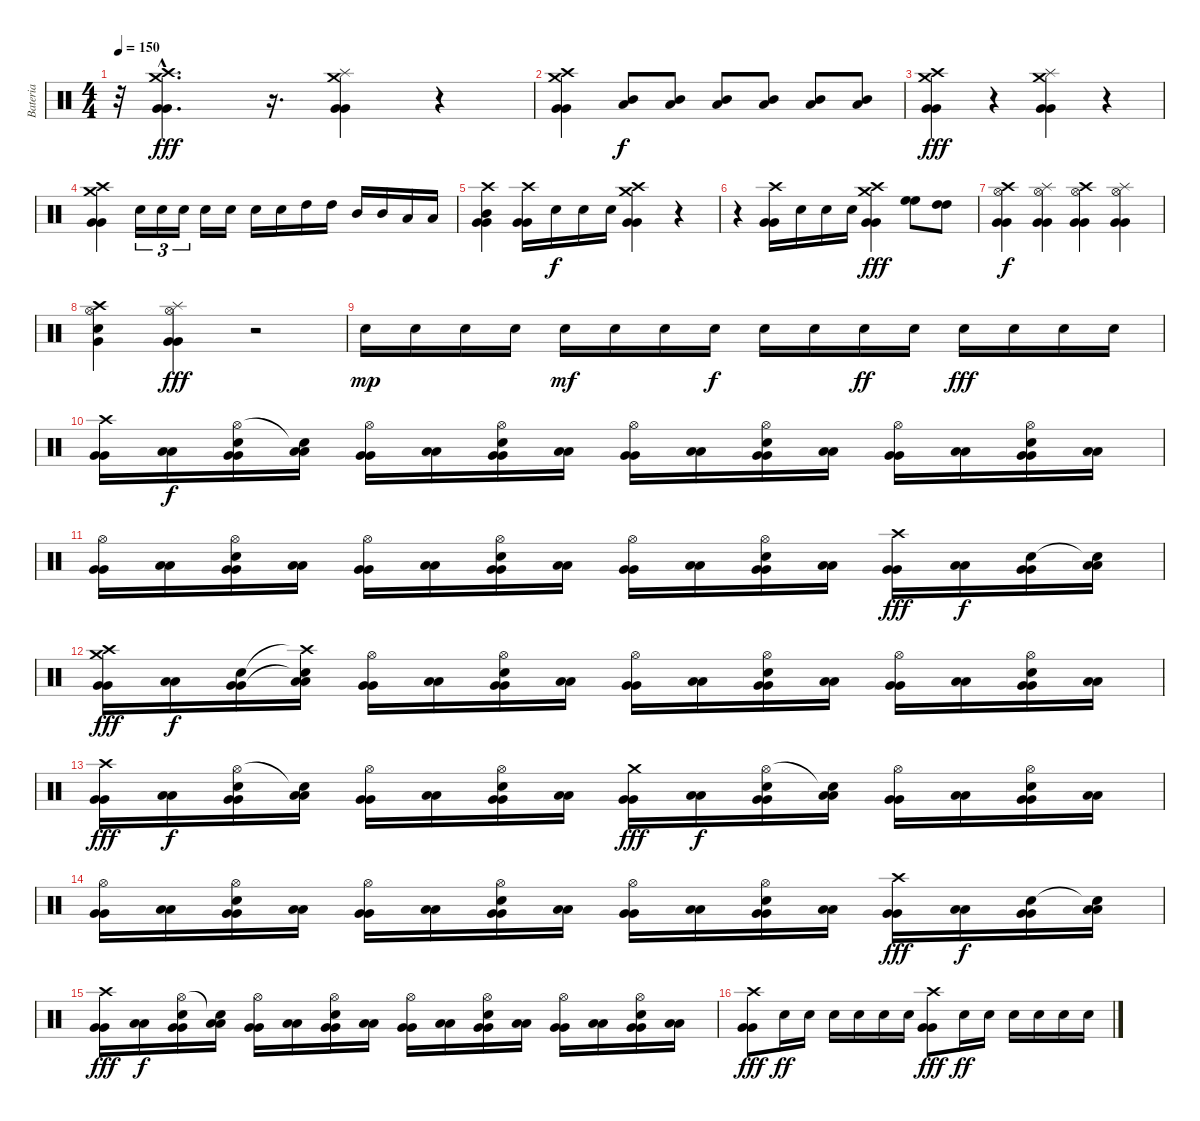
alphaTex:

\track ("Bateria" "Bateria") {instrument percussion}
\staff {score}
\articulation defaults
\ts (4 4)
\tempo 150
\clef neutral
\ks c
r.32{dy fff} ("Crash medium (hit)"{hac} "Crash high (hit)"{hac} "Very Low Tom (hit)"{hac} "Very Low Tom (hit)"{hac}).4{d} r.16{d} ("Crash medium (hit)" "Splash (hit)" "Very Low Tom (hit)" "Very Low Tom (hit)").4 r.4 |
("Crash medium (hit)" "Crash high (hit)" "Very Low Tom (hit)" "Very Low Tom (hit)").4 ("Low Tom (hit)" "Mid Tom (hit)").8{dy f} ("Low Tom (hit)" "Mid Tom (hit)").8 ("Low Tom (hit)" "Mid Tom (hit)").8 ("Low Tom (hit)" "Mid Tom (hit)").8 ("Low Tom (hit)" "Mid Tom (hit)").8 ("Low Tom (hit)" "Mid Tom (hit)").8 |
("Crash medium (hit)" "Crash high (hit)" "Very Low Tom (hit)" "Very Low Tom (hit)").4{dy fff} r.4 ("Crash medium (hit)" "Splash (hit)" "Very Low Tom (hit)" "Very Low Tom (hit)").4 r.4 |
("Crash medium (hit)" "Crash high (hit)" "Very Low Tom (hit)" "Very Low Tom (hit)").4 "Electric Snare (hit)".16{tu (3 2)} "Electric Snare (hit)".16{tu (3 2)} "Electric Snare (hit)".16{tu (3 2)} "Electric Snare (hit)".16 "Electric Snare (hit)".16 "Electric Snare (hit)".16 "Electric Snare (hit)".16 "High Tom (hit)".16 "High Tom (hit)".16 "Mid Tom (hit)".16 "Mid Tom (hit)".16 "Low Tom (hit)".16 "Low Tom (hit)".16 |
("Crash high (hit)" "Mid Tom (hit)" "Very Low Tom (hit)" "Very Low Tom (hit)").4 ("Crash high (hit)" "Very Low Tom (hit)" "Very Low Tom (hit)").16 "Electric Snare (hit)".16{dy f} "Electric Snare (hit)".16 "Electric Snare (hit)".16 ("Crash high (hit)" "Crash medium (hit)" "Very Low Tom (hit)" "Very Low Tom (hit)").4 r.4 |
r.4 ("Crash high (hit)" "Very Low Tom (hit)" "Very Low Tom (hit)").16 "Electric Snare (hit)".16 "Electric Snare (hit)".16 "Electric Snare (hit)".16 ("Crash high (hit)" "Crash medium (hit)" "Very Low Tom (hit)" "Very Low Tom (hit)").4{dy fff} ("High Floor Tom (hit)" "High Floor Tom (hit)").8{bd 60} ("High Tom (hit)" "High Tom (hit)").8{bd 480} |
("Crash high (hit)" "Hi-Hat (open)" "Very Low Tom (hit)" "Very Low Tom (hit)").4{dy f} ("Splash (hit)" "Hi-Hat (open)" "Very Low Tom (hit)" "Very Low Tom (hit)").4 ("Crash high (hit)" "Hi-Hat (open)" "Very Low Tom (hit)" "Very Low Tom (hit)").4 ("Splash (hit)" "Hi-Hat (open)" "Very Low Tom (hit)" "Very Low Tom (hit)").4 |
("Crash high (hit)" "Hi-Hat (open)" "Metronome (bell)" "Very Low Tom (hit)").4 ("Splash (hit)" "Hi-Hat (open)" "Very Low Tom (hit)" "Very Low Tom (hit)").4{dy fff} r.2 |
"Electric Snare (hit)".16{dy mp} "Electric Snare (hit)".16 "Electric Snare (hit)".16 "Electric Snare (hit)".16 "Electric Snare (hit)".16{dy mf} "Electric Snare (hit)".16 "Electric Snare (hit)".16 "Electric Snare (hit)".16{dy f} "Electric Snare (hit)".16 "Electric Snare (hit)".16 "Electric Snare (hit)".16{dy ff} "Electric Snare (hit)".16 "Electric Snare (hit)".16{dy fff} "Electric Snare (hit)".16 "Electric Snare (hit)".16 "Electric Snare (hit)".16 |
("Crash high (hit)" "Very Low Tom (hit)" "Very Low Tom (hit)").16 ("Low Floor Tom (hit)" "Low Floor Tom (hit)").16{dy f} ("Hi-Hat (open)" "Electric Snare (hit)" "Very Low Tom (hit)" "Very Low Tom (hit)").16 ("Snare (hit)"{t} "Low Floor Tom (hit)" "Low Floor Tom (hit)").16 ("Hi-Hat (open)" "Very Low Tom (hit)" "Very Low Tom (hit)").16 ("Low Floor Tom (hit)" "Low Floor Tom (hit)").16 ("Hi-Hat (open)" "Electric Snare (hit)" "Very Low Tom (hit)" "Very Low Tom (hit)").16 ("Low Floor Tom (hit)" "Low Floor Tom (hit)").16 ("Hi-Hat (open)" "Very Low Tom (hit)" "Very Low Tom (hit)").16 ("Low Floor Tom (hit)" "Low Floor Tom (hit)").16 ("Hi-Hat (open)" "Electric Snare (hit)" "Very Low Tom (hit)" "Very Low Tom (hit)").16 ("Low Floor Tom (hit)" "Low Floor Tom (hit)").16 ("Hi-Hat (open)" "Very Low Tom (hit)" "Very Low Tom (hit)").16 ("Low Floor Tom (hit)" "Low Floor Tom (hit)").16 ("Hi-Hat (open)" "Electric Snare (hit)" "Very Low Tom (hit)" "Very Low Tom (hit)").16 ("Low Floor Tom (hit)" "Low Floor Tom (hit)").16 |
("Hi-Hat (open)" "Very Low Tom (hit)" "Very Low Tom (hit)").16 ("Low Floor Tom (hit)" "Low Floor Tom (hit)").16 ("Hi-Hat (open)" "Electric Snare (hit)" "Very Low Tom (hit)" "Very Low Tom (hit)").16 ("Low Floor Tom (hit)" "Low Floor Tom (hit)").16 ("Hi-Hat (open)" "Very Low Tom (hit)" "Very Low Tom (hit)").16 ("Low Floor Tom (hit)" "Low Floor Tom (hit)").16 ("Hi-Hat (open)" "Electric Snare (hit)" "Very Low Tom (hit)" "Very Low Tom (hit)").16 ("Low Floor Tom (hit)" "Low Floor Tom (hit)").16 ("Hi-Hat (open)" "Very Low Tom (hit)" "Very Low Tom (hit)").16 ("Low Floor Tom (hit)" "Low Floor Tom (hit)").16 ("Hi-Hat (open)" "Electric Snare (hit)" "Very Low Tom (hit)" "Very Low Tom (hit)").16 ("Low Floor Tom (hit)" "Low Floor Tom (hit)").16 ("Crash high (hit)" "Very Low Tom (hit)" "Very Low Tom (hit)").16{dy fff} ("Low Floor Tom (hit)" "Low Floor Tom (hit)").16{dy f} ("Electric Snare (hit)" "Very Low Tom (hit)" "Very Low Tom (hit)").16 ("Snare (hit)"{t} "Low Floor Tom (hit)" "Low Floor Tom (hit)").16 |
("Crash high (hit)" "Crash medium (hit)" "Very Low Tom (hit)" "Very Low Tom (hit)").16{dy fff} ("Low Floor Tom (hit)" "Low Floor Tom (hit)").16{dy f} ("Electric Snare (hit)" "Very Low Tom (hit)" "Very Low Tom (hit)").16 ("Crash high (hit)"{t} "Snare (hit)"{t} "Low Floor Tom (hit)" "Low Floor Tom (hit)").16 ("Hi-Hat (open)" "Very Low Tom (hit)" "Very Low Tom (hit)").16 ("Low Floor Tom (hit)" "Low Floor Tom (hit)").16 ("Hi-Hat (open)" "Electric Snare (hit)" "Very Low Tom (hit)" "Very Low Tom (hit)").16 ("Low Floor Tom (hit)" "Low Floor Tom (hit)").16 ("Hi-Hat (open)" "Very Low Tom (hit)" "Very Low Tom (hit)").16 ("Low Floor Tom (hit)" "Low Floor Tom (hit)").16 ("Hi-Hat (open)" "Electric Snare (hit)" "Very Low Tom (hit)" "Very Low Tom (hit)").16 ("Low Floor Tom (hit)" "Low Floor Tom (hit)").16 ("Hi-Hat (open)" "Very Low Tom (hit)" "Very Low Tom (hit)").16 ("Low Floor Tom (hit)" "Low Floor Tom (hit)").16 ("Hi-Hat (open)" "Electric Snare (hit)" "Very Low Tom (hit)" "Very Low Tom (hit)").16 ("Low Floor Tom (hit)" "Low Floor Tom (hit)").16 |
("Crash high (hit)" "Very Low Tom (hit)" "Very Low Tom (hit)").16{dy fff} ("Low Floor Tom (hit)" "Low Floor Tom (hit)").16{dy f} ("Hi-Hat (open)" "Electric Snare (hit)" "Very Low Tom (hit)" "Very Low Tom (hit)").16 ("Snare (hit)"{t} "Low Floor Tom (hit)" "Low Floor Tom (hit)").16 ("Hi-Hat (open)" "Very Low Tom (hit)" "Very Low Tom (hit)").16 ("Low Floor Tom (hit)" "Low Floor Tom (hit)").16 ("Hi-Hat (open)" "Electric Snare (hit)" "Very Low Tom (hit)" "Very Low Tom (hit)").16 ("Low Floor Tom (hit)" "Low Floor Tom (hit)").16 ("Crash medium (hit)" "Very Low Tom (hit)" "Very Low Tom (hit)").16{dy fff} ("Low Floor Tom (hit)" "Low Floor Tom (hit)").16{dy f} ("Hi-Hat (open)" "Electric Snare (hit)" "Very Low Tom (hit)" "Very Low Tom (hit)").16 ("Snare (hit)"{t} "Low Floor Tom (hit)" "Low Floor Tom (hit)").16 ("Hi-Hat (open)" "Very Low Tom (hit)" "Very Low Tom (hit)").16 ("Low Floor Tom (hit)" "Low Floor Tom (hit)").16 ("Hi-Hat (open)" "Electric Snare (hit)" "Very Low Tom (hit)" "Very Low Tom (hit)").16 ("Low Floor Tom (hit)" "Low Floor Tom (hit)").16 |
("Hi-Hat (open)" "Very Low Tom (hit)" "Very Low Tom (hit)").16 ("Low Floor Tom (hit)" "Low Floor Tom (hit)").16 ("Hi-Hat (open)" "Electric Snare (hit)" "Very Low Tom (hit)" "Very Low Tom (hit)").16 ("Low Floor Tom (hit)" "Low Floor Tom (hit)").16 ("Hi-Hat (open)" "Very Low Tom (hit)" "Very Low Tom (hit)").16 ("Low Floor Tom (hit)" "Low Floor Tom (hit)").16 ("Hi-Hat (open)" "Electric Snare (hit)" "Very Low Tom (hit)" "Very Low Tom (hit)").16 ("Low Floor Tom (hit)" "Low Floor Tom (hit)").16 ("Hi-Hat (open)" "Very Low Tom (hit)" "Very Low Tom (hit)").16 ("Low Floor Tom (hit)" "Low Floor Tom (hit)").16 ("Hi-Hat (open)" "Electric Snare (hit)" "Very Low Tom (hit)" "Very Low Tom (hit)").16 ("Low Floor Tom (hit)" "Low Floor Tom (hit)").16 ("Crash high (hit)" "Very Low Tom (hit)" "Very Low Tom (hit)").16{dy fff} ("Low Floor Tom (hit)" "Low Floor Tom (hit)").16{dy f} ("Electric Snare (hit)" "Very Low Tom (hit)" "Very Low Tom (hit)").16 ("Snare (hit)"{t} "Low Floor Tom (hit)" "Low Floor Tom (hit)").16 |
("Crash high (hit)" "Very Low Tom (hit)" "Very Low Tom (hit)").16{dy fff} ("Low Floor Tom (hit)" "Low Floor Tom (hit)").16{dy f} ("Hi-Hat (open)" "Electric Snare (hit)" "Very Low Tom (hit)" "Very Low Tom (hit)").16 ("Snare (hit)"{t} "Low Floor Tom (hit)" "Low Floor Tom (hit)").16 ("Hi-Hat (open)" "Very Low Tom (hit)" "Very Low Tom (hit)").16 ("Low Floor Tom (hit)" "Low Floor Tom (hit)").16 ("Hi-Hat (open)" "Electric Snare (hit)" "Very Low Tom (hit)" "Very Low Tom (hit)").16 ("Low Floor Tom (hit)" "Low Floor Tom (hit)").16 ("Hi-Hat (open)" "Very Low Tom (hit)" "Very Low Tom (hit)").16 ("Low Floor Tom (hit)" "Low Floor Tom (hit)").16 ("Hi-Hat (open)" "Electric Snare (hit)" "Very Low Tom (hit)" "Very Low Tom (hit)").16 ("Low Floor Tom (hit)" "Low Floor Tom (hit)").16 ("Hi-Hat (open)" "Very Low Tom (hit)" "Very Low Tom (hit)").16 ("Low Floor Tom (hit)" "Low Floor Tom (hit)").16 ("Hi-Hat (open)" "Electric Snare (hit)" "Very Low Tom (hit)" "Very Low Tom (hit)").16 ("Low Floor Tom (hit)" "Low Floor Tom (hit)").16 |
("Crash high (hit)" "Very Low Tom (hit)" "Very Low Tom (hit)").8{dy fff} "Electric Snare (hit)".16{dy ff} "Electric Snare (hit)".16 "Electric Snare (hit)".16 "Electric Snare (hit)".16 "Electric Snare (hit)".16 "Electric Snare (hit)".16 ("Crash high (hit)" "Very Low Tom (hit)" "Very Low Tom (hit)").8{dy fff} "Electric Snare (hit)".16{dy ff} "Electric Snare (hit)".16 "Electric Snare (hit)".16 "Electric Snare (hit)".16 "Electric Snare (hit)".16 "Electric Snare (hit)".16
